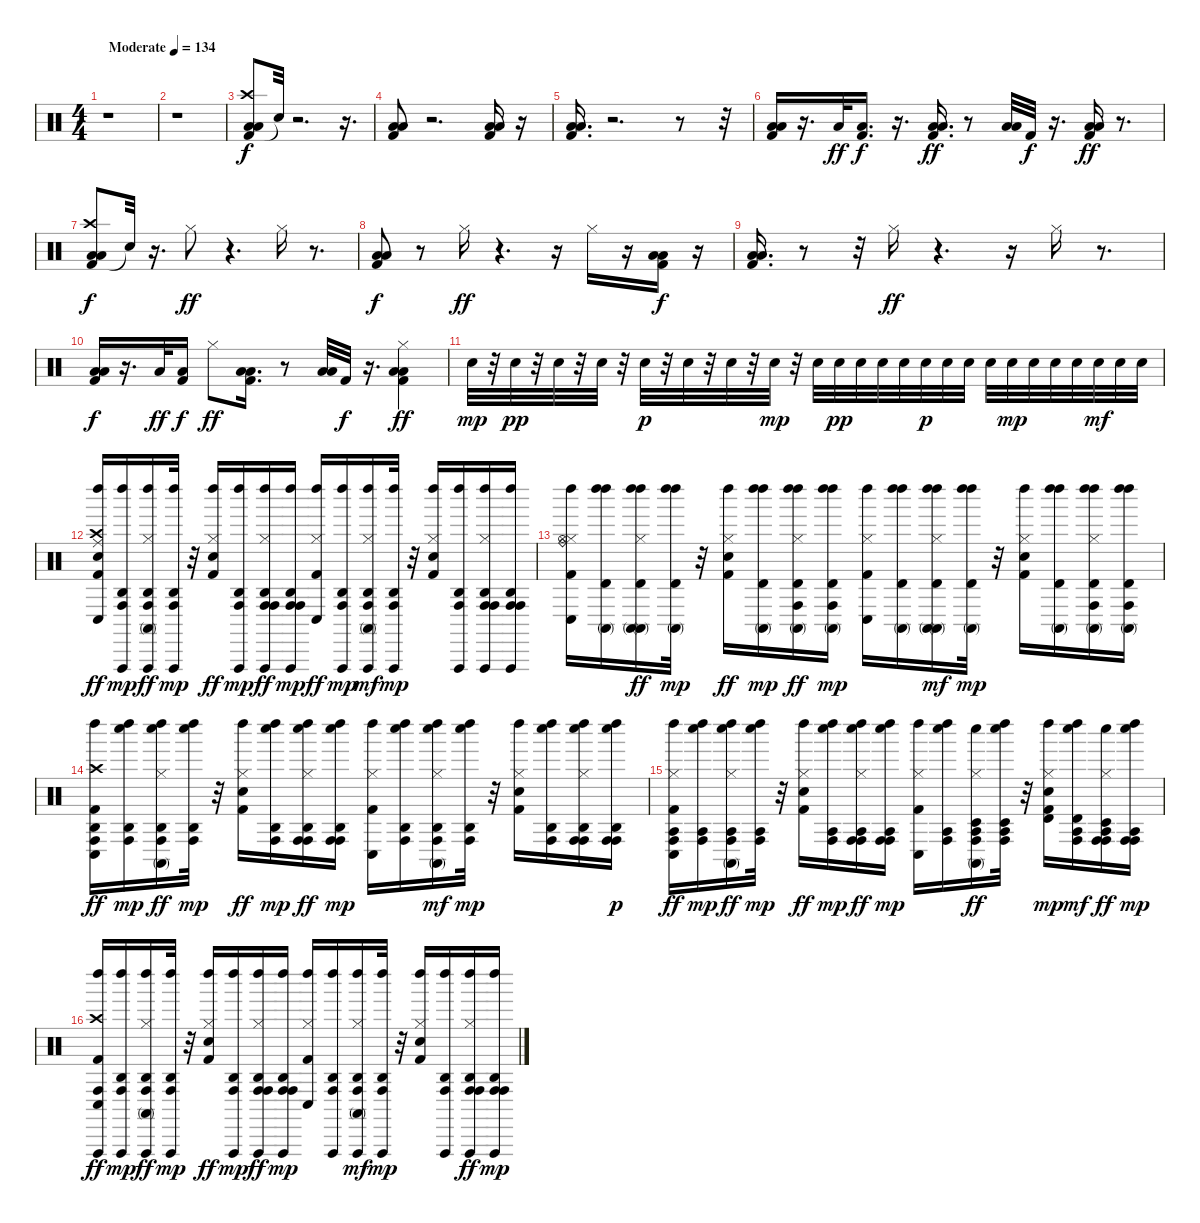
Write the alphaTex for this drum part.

\track "" {instrument percussion}
\staff {score}
\articulation defaults
\ts (4 4)
\tempo (134 "Moderate")
\clef neutral
\ks c
r.1{dy f} |
r.1 |
("Kick (hit) 2" "Low Floor Tom (hit)" "Crash high (hit)" "Low Tom (hit)").8{volume 16 balance 8} "Snare (hit)"{t}.32 r.2{d} r.16{d} |
("Low Floor Tom (hit)" "Low Tom (hit)" "Kick (hit) 2").8 r.2{d} ("Low Floor Tom (hit)" "Kick (hit) 2" "Low Tom (hit)").16 r.16 |
("Kick (hit) 2" "Low Tom (hit)" "Low Floor Tom (hit)").16{d} r.2{d} r.8 r.32 |
("Low Tom (hit)" "Low Floor Tom (hit)" "Kick (hit) 2").16 r.16{d} "Low Tom (hit)".32{dy ff} ("Low Floor Tom (hit)" "Kick (hit) 2").16{d dy f} r.16{d} ("Low Tom (hit)" "Low Floor Tom (hit)" "Kick (hit) 2").16{d dy ff} r.8 ("Low Tom (hit)" "Low Floor Tom (hit)").32 "Kick (hit) 2".32{dy f} r.16{d} ("Low Tom (hit)" "Low Floor Tom (hit)" "Kick (hit) 2").16{dy ff} r.8{d} |
("Kick (hit) 2" "Low Floor Tom (hit)" "Crash high (hit)" "Low Tom (hit)").8{dy f} "Snare (hit)"{t}.32 r.16{d} "Hi-Hat (closed)".8{dy ff} r.4{d} "Hi-Hat (closed)".16 r.8{d} |
("Low Floor Tom (hit)" "Low Tom (hit)" "Kick (hit) 2").8{dy f} r.8 "Hi-Hat (closed)".16{dy ff} r.4{d} r.16 "Hi-Hat (closed)".16 r.16 ("Low Floor Tom (hit)" "Kick (hit) 2" "Low Tom (hit)").16{dy f} r.16 |
("Kick (hit) 2" "Low Tom (hit)" "Low Floor Tom (hit)").16{d} r.8 r.32 "Hi-Hat (closed)".16{dy ff} r.4{d} r.16 "Hi-Hat (closed)".16 r.8{d} |
("Low Tom (hit)" "Low Floor Tom (hit)" "Kick (hit) 2").16{dy f} r.16{d} "Low Tom (hit)".32{dy ff} ("Low Floor Tom (hit)" "Kick (hit) 2").16{dy f} "Hi-Hat (closed)".8{dy ff} ("Low Tom (hit)" "Low Floor Tom (hit)" "Kick (hit) 2").16{d} r.8 ("Low Tom (hit)" "Low Floor Tom (hit)").32 "Kick (hit) 2".32{dy f} r.16{d} ("Low Tom (hit)" "Low Floor Tom (hit)" "Kick (hit) 2" "Hi-Hat (closed)").4{dy ff} |
"Snare (hit) 2".32{dy mp} r.32 "Snare (hit) 2".32{dy pp} r.32 "Snare (hit) 2".32 r.32 "Snare (hit) 2".32 r.32 "Snare (hit) 2".32{dy p} r.32 "Snare (hit) 2".32 r.32 "Snare (hit) 2".32 r.32 "Snare (hit) 2".32{dy mp} r.32 "Snare (hit) 2".32 "Snare (hit) 2".32{dy pp} "Snare (hit) 2".32 "Snare (hit) 2".32 "Snare (hit) 2".32 "Snare (hit) 2".32{dy p} "Snare (hit) 2".32 "Snare (hit) 2".32 "Snare (hit) 2".32 "Snare (hit) 2".32{dy mp} "Snare (hit) 2".32 "Snare (hit) 2".32 "Snare (hit) 2".32 "Snare (hit) 2".32{dy mf} "Snare (hit) 2".32 "Snare (hit) 2".32 |
("Kick (hit) 2" "Crash high (hit)" "Conga low (hit)" "Left Maraca (hit)" "Hand Clap (hit)" "Ride (middle)").16{dy ff} ("Agogo high (hit)" "Conga high (hit)" "Vibraslap (hit)" "Left Maraca (hit)").16{dy mp} ("Agogo high (hit)" "Conga high (hit)" "Vibraslap (hit)" "Left Maraca (hit)" "Conga high (mute)" "Hi-Hat (closed)").16{dy ff} ("Agogo high (hit)" "Conga high (hit)" "Vibraslap (hit)" "Left Maraca (hit)").32{dy mp} r.32 ("Left Maraca (hit)" "Hi-Hat (closed)" "Snare (hit) 2" "Kick (hit) 2").16{dy ff} ("Agogo high (hit)" "Conga high (hit)" "Vibraslap (hit)" "Left Maraca (hit)").16{dy mp} ("Agogo high (hit)" "Conga high (hit)" "Vibraslap (hit)" "Left Maraca (hit)" "Conga high (hit)" "Hi-Hat (closed)").16{dy ff} ("Agogo high (hit)" "Conga high (hit)" "Vibraslap (hit)" "Conga high (hit)" "Left Maraca (hit)").16{dy mp} ("Left Maraca (hit)" "Conga low (hit)" "Hi-Hat (closed)" "Kick (hit) 2").16{dy ff} ("Agogo high (hit)" "Conga high (hit)" "Vibraslap (hit)" "Left Maraca (hit)").16{dy mp} ("Agogo high (hit)" "Conga high (hit)" "Vibraslap (hit)" "Hi-Hat (closed)" "Conga high (mute)" "Left Maraca (hit)").16{dy mf} ("Agogo high (hit)" "Conga high (hit)" "Vibraslap (hit)" "Left Maraca (hit)").32{dy mp} r.32 ("Kick (hit) 2" "Snare (hit) 2" "Hi-Hat (closed)" "Left Maraca (hit)").16 ("Agogo high (hit)" "Conga high (hit)" "Vibraslap (hit)" "Left Maraca (hit)").16 ("Agogo high (hit)" "Conga high (hit)" "Vibraslap (hit)" "Hi-Hat (closed)" "Conga high (hit)" "Left Maraca (hit)").16 ("Agogo high (hit)" "Conga high (hit)" "Vibraslap (hit)" "Left Maraca (hit)" "Conga high (hit)").16 |
("Kick (hit) 2" "Hi-Hat (closed)" "Conga low (hit)" "Left Maraca (hit)" "Hi-Hat (open)" "Ride (bell)").16 ("Left Maraca (hit)" "Timbale high (hit)" "Conga high (mute)" "Left Maraca (hit)").16 ("Left Maraca (hit)" "Timbale high (hit)" "Conga high (mute)" "Left Maraca (hit)" "Conga high (mute)" "Hi-Hat (closed)").16{dy ff} ("Left Maraca (hit)" "Timbale high (hit)" "Conga high (mute)" "Left Maraca (hit)").32{dy mp} r.32 ("Left Maraca (hit)" "Hi-Hat (closed)" "Snare (hit) 2" "Kick (hit) 2").16{dy ff} ("Left Maraca (hit)" "Timbale high (hit)" "Conga high (mute)" "Left Maraca (hit)").16{dy mp} ("Left Maraca (hit)" "Timbale high (hit)" "Conga high (mute)" "Left Maraca (hit)" "Conga high (hit)" "Hi-Hat (closed)").16{dy ff} ("Left Maraca (hit)" "Timbale high (hit)" "Conga high (mute)" "Conga high (hit)" "Left Maraca (hit)").16{dy mp} ("Kick (hit) 2" "Hi-Hat (closed)" "Conga low (hit)" "Left Maraca (hit)").16 ("Left Maraca (hit)" "Timbale high (hit)" "Conga high (mute)" "Left Maraca (hit)").16 ("Left Maraca (hit)" "Timbale high (hit)" "Conga high (mute)" "Hi-Hat (closed)" "Conga high (mute)" "Left Maraca (hit)").16{dy mf} ("Left Maraca (hit)" "Timbale high (hit)" "Conga high (mute)" "Left Maraca (hit)").32{dy mp} r.32 ("Kick (hit) 2" "Snare (hit) 2" "Hi-Hat (closed)" "Left Maraca (hit)").16 ("Left Maraca (hit)" "Timbale high (hit)" "Conga high (mute)" "Left Maraca (hit)").16 ("Left Maraca (hit)" "Timbale high (hit)" "Conga high (mute)" "Hi-Hat (closed)" "Conga high (hit)" "Left Maraca (hit)").16 ("Left Maraca (hit)" "Timbale high (hit)" "Conga high (mute)" "Left Maraca (hit)" "Conga high (hit)").16 |
("Left Maraca (hit)" "Conga low (hit)" "Crash high (hit)" "Kick (hit) 2" "Agogo high (hit)" "Conga high (hit)").16{dy ff} ("Whistle low (hit)" "Agogo high (hit)" "Conga high (hit)" "Left Maraca (hit)").16{dy mp} ("Whistle low (hit)" "Agogo high (hit)" "Conga high (hit)" "Left Maraca (hit)" "Conga high (mute)" "Hi-Hat (closed)").16{dy ff} ("Whistle low (hit)" "Agogo high (hit)" "Conga high (hit)" "Left Maraca (hit)").32{dy mp} r.32 ("Left Maraca (hit)" "Hi-Hat (closed)" "Snare (hit) 2" "Kick (hit) 2").16{dy ff} ("Whistle low (hit)" "Agogo high (hit)" "Conga high (hit)" "Left Maraca (hit)").16{dy mp} ("Whistle low (hit)" "Agogo high (hit)" "Conga high (hit)" "Left Maraca (hit)" "Conga high (hit)" "Hi-Hat (closed)").16{dy ff} ("Conga high (hit)" "Agogo high (hit)" "Whistle low (hit)" "Conga high (hit)" "Left Maraca (hit)").16{dy mp} ("Kick (hit) 2" "Hi-Hat (closed)" "Conga low (hit)" "Left Maraca (hit)").16 ("Whistle low (hit)" "Agogo high (hit)" "Conga high (hit)" "Left Maraca (hit)").16 ("Whistle low (hit)" "Agogo high (hit)" "Conga high (hit)" "Hi-Hat (closed)" "Conga high (mute)" "Left Maraca (hit)").16{dy mf} ("Whistle low (hit)" "Agogo high (hit)" "Conga high (hit)" "Left Maraca (hit)").32{dy mp} r.32 ("Kick (hit) 2" "Snare (hit) 2" "Hi-Hat (closed)" "Left Maraca (hit)").16 ("Whistle low (hit)" "Agogo high (hit)" "Conga high (hit)" "Left Maraca (hit)").16 ("Whistle low (hit)" "Agogo high (hit)" "Conga high (hit)" "Hi-Hat (closed)" "Conga high (hit)" "Left Maraca (hit)").16 ("Whistle low (hit)" "Agogo high (hit)" "Conga high (hit)" "Left Maraca (hit)" "Conga high (hit)").16{dy p} |
("Left Maraca (hit)" "Conga low (hit)" "Hi-Hat (closed)" "Kick (hit) 2" "Agogo tow (hit)" "Conga high (hit)").16{dy ff} ("Whistle low (hit)" "Agogo tow (hit)" "Conga high (hit)" "Left Maraca (hit)").16{dy mp} ("Whistle low (hit)" "Agogo tow (hit)" "Conga high (hit)" "Left Maraca (hit)" "Conga high (mute)" "Hi-Hat (closed)").16{dy ff} ("Whistle low (hit)" "Agogo tow (hit)" "Conga high (hit)" "Left Maraca (hit)").32{dy mp} r.32 ("Left Maraca (hit)" "Hi-Hat (closed)" "Snare (hit) 2" "Kick (hit) 2").16{dy ff} ("Whistle low (hit)" "Agogo tow (hit)" "Conga high (hit)" "Left Maraca (hit)").16{dy mp} ("Whistle low (hit)" "Agogo tow (hit)" "Conga high (hit)" "Left Maraca (hit)" "Conga high (hit)" "Hi-Hat (closed)").16{dy ff} ("Whistle low (hit)" "Agogo tow (hit)" "Conga high (hit)" "Left Maraca (hit)" "Conga high (hit)").16{dy mp} ("Kick (hit) 2" "Hi-Hat (closed)" "Conga low (hit)" "Left Maraca (hit)").16 ("Whistle low (hit)" "Agogo tow (hit)" "Conga high (hit)" "Left Maraca (hit)").16 ("Whistle low (hit)" "Agogo tow (hit)" "Conga high (hit)" "Hi-Hat (closed)" "Conga high (mute)" "Timbale low (hit)").16{dy ff} ("Whistle low (hit)" "Agogo tow (hit)" "Conga high (hit)" "Left Maraca (hit)" "Timbale low (hit)").32 r.32 ("Kick (hit) 2" "Snare (hit) 2" "Hi-Hat (closed)" "Timbale high (hit)" "Left Maraca (hit)").16{dy mp} ("Whistle low (hit)" "Agogo tow (hit)" "Conga high (hit)" "Left Maraca (hit)" "Timbale high (hit)").16{dy mf} ("Conga high (hit)" "Agogo tow (hit)" "Whistle low (hit)" "Hi-Hat (closed)" "Conga high (hit)" "Timbale low (hit)").16{dy ff} ("Whistle low (hit)" "Agogo tow (hit)" "Conga high (hit)" "Conga high (hit)" "Left Maraca (hit)").16{dy mp} |
("Left Maraca (hit)" "Conga low (hit)" "Crash high (hit)" "Kick (hit) 2" "Conga high (hit)" "Vibraslap (hit)").16{dy ff} ("Agogo high (hit)" "Conga high (hit)" "Vibraslap (hit)" "Left Maraca (hit)").16{dy mp} ("Agogo high (hit)" "Conga high (hit)" "Vibraslap (hit)" "Left Maraca (hit)" "Conga high (mute)" "Hi-Hat (closed)").16{dy ff} ("Agogo high (hit)" "Conga high (hit)" "Vibraslap (hit)" "Left Maraca (hit)").32{dy mp} r.32 ("Left Maraca (hit)" "Hi-Hat (closed)" "Snare (hit) 2" "Kick (hit) 2").16{dy ff} ("Agogo high (hit)" "Conga high (hit)" "Vibraslap (hit)" "Left Maraca (hit)").16{dy mp} ("Agogo high (hit)" "Conga high (hit)" "Vibraslap (hit)" "Left Maraca (hit)" "Conga high (hit)" "Hi-Hat (closed)").16{dy ff} ("Agogo high (hit)" "Conga high (hit)" "Vibraslap (hit)" "Left Maraca (hit)" "Conga high (hit)").16{dy mp} ("Kick (hit) 2" "Hi-Hat (closed)" "Conga low (hit)" "Left Maraca (hit)").16 ("Agogo high (hit)" "Conga high (hit)" "Vibraslap (hit)" "Left Maraca (hit)").16 ("Agogo high (hit)" "Conga high (hit)" "Vibraslap (hit)" "Hi-Hat (closed)" "Conga high (mute)" "Left Maraca (hit)").16{dy mf} ("Agogo high (hit)" "Conga high (hit)" "Vibraslap (hit)" "Left Maraca (hit)").32{dy mp} r.32 ("Kick (hit) 2" "Snare (hit) 2" "Hi-Hat (closed)" "Left Maraca (hit)").16 ("Agogo high (hit)" "Conga high (hit)" "Vibraslap (hit)" "Left Maraca (hit)").16 ("Agogo high (hit)" "Conga high (hit)" "Vibraslap (hit)" "Left Maraca (hit)" "Conga high (hit)" "Hi-Hat (closed)").16{dy ff} ("Agogo high (hit)" "Conga high (hit)" "Vibraslap (hit)" "Conga high (hit)" "Left Maraca (hit)").16{dy mp}
